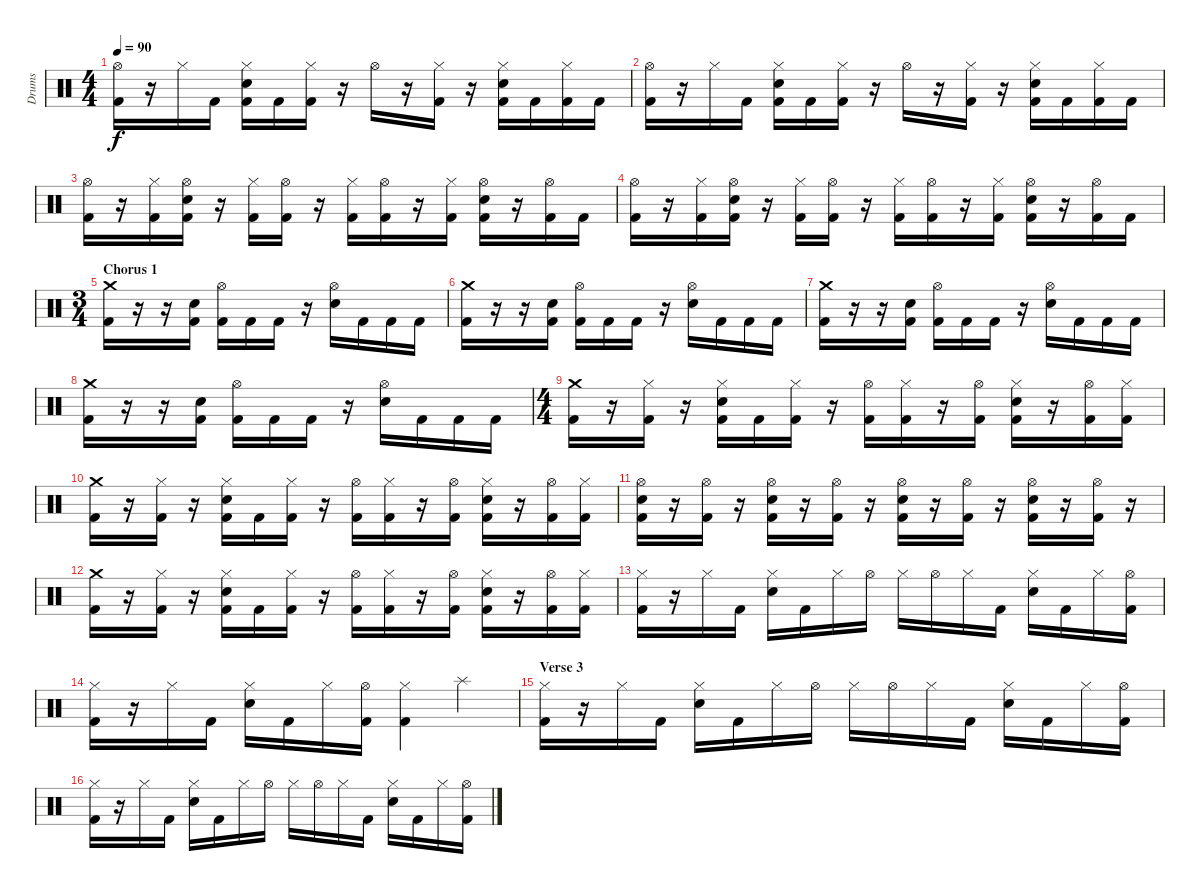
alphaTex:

\track ("Drums" "Drums") {instrument percussion}
\staff {score}
\articulation defaults
\ts (4 4)
\tempo 90
\clef neutral
\ks c
("Hi-Hat (open)" "Kick (hit) 2").16{dy f} r.16 "Hi-Hat (closed)".16 "Kick (hit) 2".16 ("Hi-Hat (closed)" "Snare (hit) 2" "Kick (hit) 2").16 "Kick (hit) 2".16 ("Hi-Hat (closed)" "Kick (hit) 2").16 r.16 "Hi-Hat (open)".16 r.16 ("Hi-Hat (closed)" "Kick (hit) 2").16 r.16 ("Hi-Hat (closed)" "Snare (hit) 2" "Kick (hit) 2").16 "Kick (hit) 2".16 ("Hi-Hat (closed)" "Kick (hit) 2").16 "Kick (hit) 2".16 |
("Hi-Hat (open)" "Kick (hit) 2").16 r.16 "Hi-Hat (closed)".16 "Kick (hit) 2".16 ("Hi-Hat (closed)" "Snare (hit) 2" "Kick (hit) 2").16 "Kick (hit) 2".16 ("Hi-Hat (closed)" "Kick (hit) 2").16 r.16 "Hi-Hat (open)".16 r.16 ("Hi-Hat (closed)" "Kick (hit) 2").16 r.16 ("Hi-Hat (closed)" "Snare (hit) 2" "Kick (hit) 2").16 "Kick (hit) 2".16 ("Hi-Hat (closed)" "Kick (hit) 2").16 "Kick (hit) 2".16 |
("Hi-Hat (open)" "Kick (hit) 2").16 r.16 ("Hi-Hat (closed)" "Kick (hit) 2").16 ("Hi-Hat (open)" "Snare (hit) 2" "Kick (hit) 2").16 r.16 ("Hi-Hat (closed)" "Kick (hit) 2").16 ("Hi-Hat (open)" "Kick (hit) 2").16 r.16 ("Hi-Hat (closed)" "Kick (hit) 2").16 ("Hi-Hat (open)" "Kick (hit) 2").16 r.16 ("Hi-Hat (closed)" "Kick (hit) 2").16 ("Hi-Hat (open)" "Snare (hit) 2" "Kick (hit) 2").16 r.16 ("Hi-Hat (open)" "Kick (hit) 2").16 "Kick (hit) 2".16 |
("Hi-Hat (open)" "Kick (hit) 2").16 r.16 ("Hi-Hat (closed)" "Kick (hit) 2").16 ("Hi-Hat (open)" "Snare (hit) 2" "Kick (hit) 2").16 r.16 ("Hi-Hat (closed)" "Kick (hit) 2").16 ("Hi-Hat (open)" "Kick (hit) 2").16 r.16 ("Hi-Hat (closed)" "Kick (hit) 2").16 ("Hi-Hat (open)" "Kick (hit) 2").16 r.16 ("Hi-Hat (closed)" "Kick (hit) 2").16 ("Hi-Hat (open)" "Snare (hit) 2" "Kick (hit) 2").16 r.16 ("Hi-Hat (open)" "Kick (hit) 2").16 "Kick (hit) 2".16 |
\ts (3 4)
\section ("" "Chorus 1")
("Crash medium (hit)" "Kick (hit) 2").16 r.16 r.16 ("Snare (hit) 2" "Kick (hit) 2").16 ("Hi-Hat (open)" "Kick (hit) 2").16 "Kick (hit) 2".16 "Kick (hit) 2".16 r.16 ("Hi-Hat (open)" "Snare (hit) 2").16 "Kick (hit) 2".16 "Kick (hit) 2".16 "Kick (hit) 2".16 |
("Crash medium (hit)" "Kick (hit) 2").16 r.16 r.16 ("Snare (hit) 2" "Kick (hit) 2").16 ("Hi-Hat (open)" "Kick (hit) 2").16 "Kick (hit) 2".16 "Kick (hit) 2".16 r.16 ("Hi-Hat (open)" "Snare (hit) 2").16 "Kick (hit) 2".16 "Kick (hit) 2".16 "Kick (hit) 2".16 |
("Crash medium (hit)" "Kick (hit) 2").16 r.16 r.16 ("Snare (hit) 2" "Kick (hit) 2").16 ("Hi-Hat (open)" "Kick (hit) 2").16 "Kick (hit) 2".16 "Kick (hit) 2".16 r.16 ("Hi-Hat (open)" "Snare (hit) 2").16 "Kick (hit) 2".16 "Kick (hit) 2".16 "Kick (hit) 2".16 |
("Crash medium (hit)" "Kick (hit) 2").16 r.16 r.16 ("Snare (hit) 2" "Kick (hit) 2").16 ("Hi-Hat (open)" "Kick (hit) 2").16 "Kick (hit) 2".16 "Kick (hit) 2".16 r.16 ("Hi-Hat (open)" "Snare (hit) 2").16 "Kick (hit) 2".16 "Kick (hit) 2".16 "Kick (hit) 2".16 |
\ts (4 4)
("Crash medium (hit)" "Kick (hit) 2").16 r.16 ("Hi-Hat (closed)" "Kick (hit) 2").16 r.16 ("Hi-Hat (closed)" "Snare (hit) 2" "Kick (hit) 2").16 "Kick (hit) 2".16 ("Hi-Hat (closed)" "Kick (hit) 2").16 r.16 ("Hi-Hat (open)" "Kick (hit) 2").16 ("Hi-Hat (closed)" "Kick (hit) 2").16 r.16 ("Hi-Hat (open)" "Kick (hit) 2").16 ("Hi-Hat (closed)" "Snare (hit) 2" "Kick (hit) 2").16 r.16 ("Hi-Hat (open)" "Kick (hit) 2").16 ("Hi-Hat (closed)" "Kick (hit) 2").16 |
("Crash medium (hit)" "Kick (hit) 2").16 r.16 ("Hi-Hat (closed)" "Kick (hit) 2").16 r.16 ("Hi-Hat (closed)" "Snare (hit) 2" "Kick (hit) 2").16 "Kick (hit) 2".16 ("Hi-Hat (closed)" "Kick (hit) 2").16 r.16 ("Hi-Hat (open)" "Kick (hit) 2").16 ("Hi-Hat (closed)" "Kick (hit) 2").16 r.16 ("Hi-Hat (open)" "Kick (hit) 2").16 ("Hi-Hat (closed)" "Snare (hit) 2" "Kick (hit) 2").16 r.16 ("Hi-Hat (open)" "Kick (hit) 2").16 ("Hi-Hat (closed)" "Kick (hit) 2").16 |
("Hi-Hat (open)" "Snare (hit) 2" "Kick (hit) 2").16 r.16 ("Hi-Hat (open)" "Kick (hit) 2").16 r.16 ("Hi-Hat (open)" "Snare (hit) 2" "Kick (hit) 2").16 r.16 ("Hi-Hat (open)" "Kick (hit) 2").16 r.16 ("Hi-Hat (open)" "Snare (hit) 2" "Kick (hit) 2").16 r.16 ("Hi-Hat (open)" "Kick (hit) 2").16 r.16 ("Hi-Hat (open)" "Snare (hit) 2" "Kick (hit) 2").16 r.16 ("Hi-Hat (open)" "Kick (hit) 2").16 r.16 |
("Crash medium (hit)" "Kick (hit) 2").16 r.16 ("Hi-Hat (closed)" "Kick (hit) 2").16 r.16 ("Hi-Hat (closed)" "Snare (hit) 2" "Kick (hit) 2").16 "Kick (hit) 2".16 ("Hi-Hat (closed)" "Kick (hit) 2").16 r.16 ("Hi-Hat (open)" "Kick (hit) 2").16 ("Hi-Hat (closed)" "Kick (hit) 2").16 r.16 ("Hi-Hat (open)" "Kick (hit) 2").16 ("Hi-Hat (closed)" "Snare (hit) 2" "Kick (hit) 2").16 r.16 ("Hi-Hat (open)" "Kick (hit) 2").16 ("Hi-Hat (closed)" "Kick (hit) 2").16 |
("Hi-Hat (closed)" "Kick (hit) 2").16 r.16 "Hi-Hat (closed)".16 "Kick (hit) 2".16 ("Hi-Hat (closed)" "Snare (hit) 2").16 "Kick (hit) 2".16 "Hi-Hat (closed)".16 "Hi-Hat (open)".16 "Hi-Hat (closed)".16 "Hi-Hat (open)".16 "Hi-Hat (closed)".16 "Kick (hit) 2".16 ("Hi-Hat (closed)" "Snare (hit) 2").16 "Kick (hit) 2".16 "Hi-Hat (closed)".16 ("Hi-Hat (open)" "Kick (hit) 2").16 |
("Hi-Hat (closed)" "Kick (hit) 2").16 r.16 "Hi-Hat (closed)".16 "Kick (hit) 2".16 ("Hi-Hat (closed)" "Snare (hit) 2").16 "Kick (hit) 2".16 "Hi-Hat (closed)".16 ("Hi-Hat (open)" "Kick (hit) 2").16 ("Hi-Hat (closed)" "Kick (hit) 2").4 "Splash (hit)".4 |
\section ("" "Verse 3")
("Hi-Hat (closed)" "Kick (hit) 2").16 r.16 "Hi-Hat (closed)".16 "Kick (hit) 2".16 ("Hi-Hat (closed)" "Snare (hit) 2").16 "Kick (hit) 2".16 "Hi-Hat (closed)".16 "Hi-Hat (open)".16 "Hi-Hat (closed)".16 "Hi-Hat (open)".16 "Hi-Hat (closed)".16 "Kick (hit) 2".16 ("Hi-Hat (closed)" "Snare (hit) 2").16 "Kick (hit) 2".16 "Hi-Hat (closed)".16 ("Hi-Hat (open)" "Kick (hit) 2").16 |
("Hi-Hat (closed)" "Kick (hit) 2").16 r.16 "Hi-Hat (closed)".16 "Kick (hit) 2".16 ("Hi-Hat (closed)" "Snare (hit) 2").16 "Kick (hit) 2".16 "Hi-Hat (closed)".16 "Hi-Hat (open)".16 "Hi-Hat (closed)".16 "Hi-Hat (open)".16 "Hi-Hat (closed)".16 "Kick (hit) 2".16 ("Hi-Hat (closed)" "Snare (hit) 2").16 "Kick (hit) 2".16 "Hi-Hat (closed)".16 ("Hi-Hat (open)" "Kick (hit) 2").16
